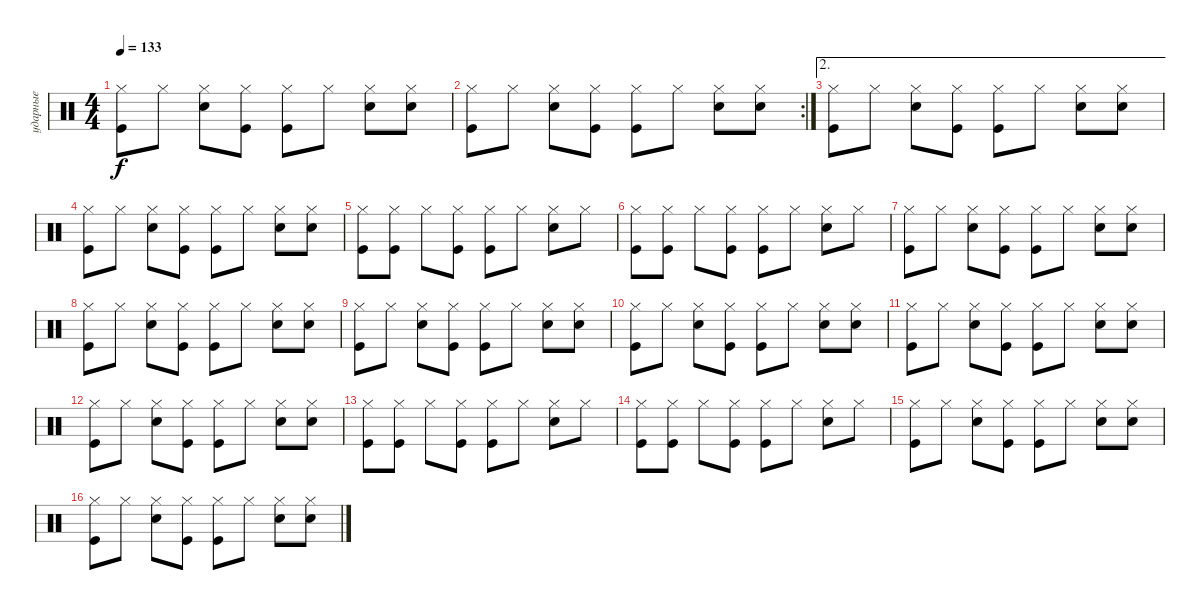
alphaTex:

\track ("ударные" "ударные") {instrument percussion}
\staff {score}
\articulation defaults
\ts (4 4)
\tempo 133
\clef neutral
\ks c
("Kick (hit)" "Hi-Hat (closed)").8{dy f} "Hi-Hat (closed)".8 ("Snare (hit) 2" "Hi-Hat (closed)").8 ("Hi-Hat (closed)" "Kick (hit)").8 ("Kick (hit)" "Hi-Hat (closed)").8 "Hi-Hat (closed)".8 ("Hi-Hat (closed)" "Snare (hit) 2").8 ("Snare (hit) 2" "Hi-Hat (closed)").8 |
\rc 2
("Kick (hit)" "Hi-Hat (closed)").8 "Hi-Hat (closed)".8 ("Snare (hit) 2" "Hi-Hat (closed)").8 ("Hi-Hat (closed)" "Kick (hit)").8 ("Kick (hit)" "Hi-Hat (closed)").8 "Hi-Hat (closed)".8 ("Hi-Hat (closed)" "Snare (hit) 2").8 ("Snare (hit) 2" "Hi-Hat (closed)").8 |
\ae 2
("Kick (hit)" "Hi-Hat (closed)").8 "Hi-Hat (closed)".8 ("Snare (hit) 2" "Hi-Hat (closed)").8 ("Hi-Hat (closed)" "Kick (hit)").8 ("Kick (hit)" "Hi-Hat (closed)").8 "Hi-Hat (closed)".8 ("Hi-Hat (closed)" "Snare (hit) 2").8 ("Snare (hit) 2" "Hi-Hat (closed)").8 |
("Kick (hit)" "Hi-Hat (closed)").8 "Hi-Hat (closed)".8 ("Snare (hit) 2" "Hi-Hat (closed)").8 ("Hi-Hat (closed)" "Kick (hit)").8 ("Kick (hit)" "Hi-Hat (closed)").8 "Hi-Hat (closed)".8 ("Hi-Hat (closed)" "Snare (hit) 2").8 ("Snare (hit) 2" "Hi-Hat (closed)").8 |
("Kick (hit)" "Hi-Hat (closed)").8 ("Kick (hit)" "Hi-Hat (closed)").8 "Hi-Hat (closed)".8 ("Kick (hit)" "Hi-Hat (closed)").8 ("Hi-Hat (closed)" "Kick (hit)").8 "Hi-Hat (closed)".8 ("Snare (hit) 2" "Hi-Hat (closed)").8 "Hi-Hat (closed)".8 |
("Kick (hit)" "Hi-Hat (closed)").8 ("Kick (hit)" "Hi-Hat (closed)").8 "Hi-Hat (closed)".8 ("Kick (hit)" "Hi-Hat (closed)").8 ("Hi-Hat (closed)" "Kick (hit)").8 "Hi-Hat (closed)".8 ("Snare (hit) 2" "Hi-Hat (closed)").8 "Hi-Hat (closed)".8 |
("Kick (hit)" "Hi-Hat (closed)").8 "Hi-Hat (closed)".8 ("Snare (hit) 2" "Hi-Hat (closed)").8 ("Hi-Hat (closed)" "Kick (hit)").8 ("Kick (hit)" "Hi-Hat (closed)").8 "Hi-Hat (closed)".8 ("Hi-Hat (closed)" "Snare (hit) 2").8 ("Snare (hit) 2" "Hi-Hat (closed)").8 |
("Kick (hit)" "Hi-Hat (closed)").8 "Hi-Hat (closed)".8 ("Snare (hit) 2" "Hi-Hat (closed)").8 ("Hi-Hat (closed)" "Kick (hit)").8 ("Kick (hit)" "Hi-Hat (closed)").8 "Hi-Hat (closed)".8 ("Hi-Hat (closed)" "Snare (hit) 2").8 ("Snare (hit) 2" "Hi-Hat (closed)").8 |
("Kick (hit)" "Hi-Hat (closed)").8 "Hi-Hat (closed)".8 ("Snare (hit) 2" "Hi-Hat (closed)").8 ("Hi-Hat (closed)" "Kick (hit)").8 ("Kick (hit)" "Hi-Hat (closed)").8 "Hi-Hat (closed)".8 ("Hi-Hat (closed)" "Snare (hit) 2").8 ("Snare (hit) 2" "Hi-Hat (closed)").8 |
("Kick (hit)" "Hi-Hat (closed)").8 "Hi-Hat (closed)".8 ("Snare (hit) 2" "Hi-Hat (closed)").8 ("Hi-Hat (closed)" "Kick (hit)").8 ("Kick (hit)" "Hi-Hat (closed)").8 "Hi-Hat (closed)".8 ("Hi-Hat (closed)" "Snare (hit) 2").8 ("Snare (hit) 2" "Hi-Hat (closed)").8 |
("Kick (hit)" "Hi-Hat (closed)").8 "Hi-Hat (closed)".8 ("Snare (hit) 2" "Hi-Hat (closed)").8 ("Hi-Hat (closed)" "Kick (hit)").8 ("Kick (hit)" "Hi-Hat (closed)").8 "Hi-Hat (closed)".8 ("Hi-Hat (closed)" "Snare (hit) 2").8 ("Snare (hit) 2" "Hi-Hat (closed)").8 |
("Kick (hit)" "Hi-Hat (closed)").8 "Hi-Hat (closed)".8 ("Snare (hit) 2" "Hi-Hat (closed)").8 ("Hi-Hat (closed)" "Kick (hit)").8 ("Kick (hit)" "Hi-Hat (closed)").8 "Hi-Hat (closed)".8 ("Hi-Hat (closed)" "Snare (hit) 2").8 ("Snare (hit) 2" "Hi-Hat (closed)").8 |
("Kick (hit)" "Hi-Hat (closed)").8 ("Kick (hit)" "Hi-Hat (closed)").8 "Hi-Hat (closed)".8 ("Kick (hit)" "Hi-Hat (closed)").8 ("Hi-Hat (closed)" "Kick (hit)").8 "Hi-Hat (closed)".8 ("Snare (hit) 2" "Hi-Hat (closed)").8 "Hi-Hat (closed)".8 |
("Kick (hit)" "Hi-Hat (closed)").8 ("Kick (hit)" "Hi-Hat (closed)").8 "Hi-Hat (closed)".8 ("Kick (hit)" "Hi-Hat (closed)").8 ("Hi-Hat (closed)" "Kick (hit)").8 "Hi-Hat (closed)".8 ("Snare (hit) 2" "Hi-Hat (closed)").8 "Hi-Hat (closed)".8 |
("Kick (hit)" "Hi-Hat (closed)").8 "Hi-Hat (closed)".8 ("Snare (hit) 2" "Hi-Hat (closed)").8 ("Hi-Hat (closed)" "Kick (hit)").8 ("Kick (hit)" "Hi-Hat (closed)").8 "Hi-Hat (closed)".8 ("Hi-Hat (closed)" "Snare (hit) 2").8 ("Snare (hit) 2" "Hi-Hat (closed)").8 |
("Kick (hit)" "Hi-Hat (closed)").8 "Hi-Hat (closed)".8 ("Snare (hit) 2" "Hi-Hat (closed)").8 ("Hi-Hat (closed)" "Kick (hit)").8 ("Kick (hit)" "Hi-Hat (closed)").8 "Hi-Hat (closed)".8 ("Hi-Hat (closed)" "Snare (hit) 2").8 ("Snare (hit) 2" "Hi-Hat (closed)").8
